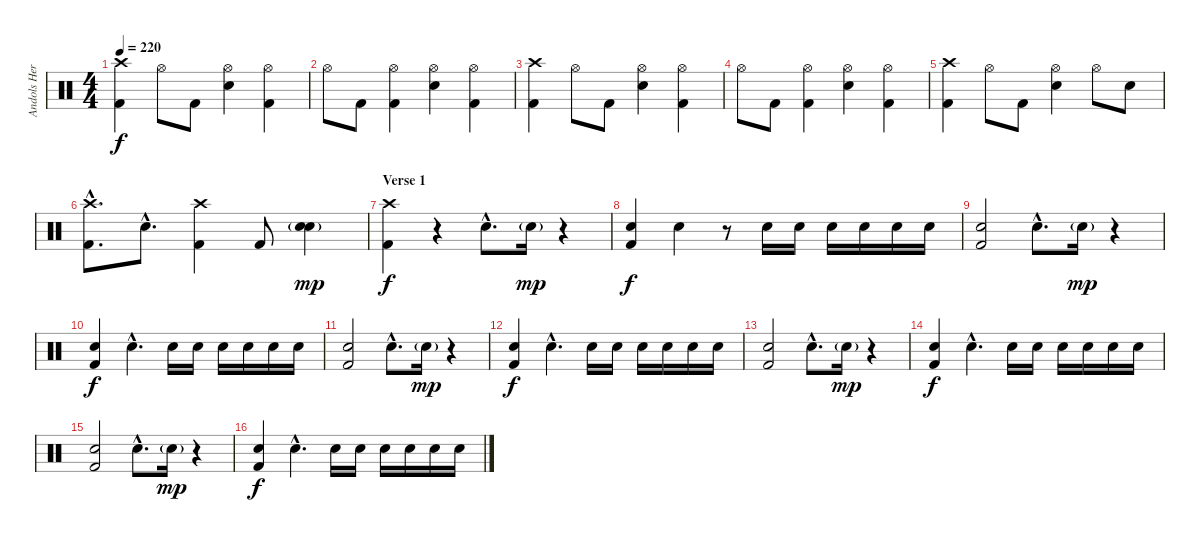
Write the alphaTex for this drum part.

\track ("Andols Herrick - Drums" "Andols Her") {instrument percussion}
\staff {score}
\articulation defaults
\ts (4 4)
\tempo 220
\clef neutral
\ks c
("Crash high (hit)" "Kick (hit) 2").4{dy f} "Hi-Hat (open)".8 "Kick (hit) 2".8 ("Hi-Hat (open)" "Snare (hit) 2").4 ("Hi-Hat (open)" "Kick (hit) 2").4 |
"Hi-Hat (open)".8 "Kick (hit) 2".8 ("Hi-Hat (open)" "Kick (hit) 2").4 ("Hi-Hat (open)" "Snare (hit) 2").4 ("Hi-Hat (open)" "Kick (hit) 2").4 |
("Crash high (hit)" "Kick (hit) 2").4 "Hi-Hat (open)".8 "Kick (hit) 2".8 ("Hi-Hat (open)" "Snare (hit) 2").4 ("Hi-Hat (open)" "Kick (hit) 2").4 |
"Hi-Hat (open)".8 "Kick (hit) 2".8 ("Hi-Hat (open)" "Kick (hit) 2").4 ("Hi-Hat (open)" "Snare (hit) 2").4 ("Hi-Hat (open)" "Kick (hit) 2").4 |
("Crash high (hit)" "Kick (hit) 2").4 "Hi-Hat (open)".8 "Kick (hit) 2".8 ("Hi-Hat (open)" "Snare (hit) 2").4 "Hi-Hat (open)".8 "Snare (hit) 2".8 |
("Crash high (hit)"{hac} "Kick (hit) 2"{hac}).8{d} "Snare (hit) 2"{hac}.8{d} ("Crash high (hit)" "Kick (hit) 2").4 "Kick (hit) 2".8 ("Snare (hit) 2"{g} "Snare (hit) 2").4{dy mp} |
\section ("" "Verse 1")
("Crash high (hit)" "Kick (hit) 2").4{dy f} r.4 "Snare (hit) 2"{hac}.8{d} "Snare (hit) 2"{g}.16{dy mp} r.4 |
("Snare (hit) 2" "Kick (hit) 2").4{dy f} "Snare (hit) 2".4 r.8 "Snare (hit) 2".16 "Snare (hit) 2".16 "Snare (hit) 2".16 "Snare (hit) 2".16 "Snare (hit) 2".16 "Snare (hit) 2".16 |
("Snare (hit) 2" "Kick (hit) 2").2 "Snare (hit) 2"{hac}.8{d} "Snare (hit) 2"{g}.16{dy mp} r.4 |
("Snare (hit) 2" "Kick (hit) 2").4{dy f} "Snare (hit) 2"{hac}.4{d} "Snare (hit) 2".16 "Snare (hit) 2".16 "Snare (hit) 2".16 "Snare (hit) 2".16 "Snare (hit) 2".16 "Snare (hit) 2".16 |
("Snare (hit) 2" "Kick (hit) 2").2 "Snare (hit) 2"{hac}.8{d} "Snare (hit) 2"{g}.16{dy mp} r.4 |
("Snare (hit) 2" "Kick (hit) 2").4{dy f} "Snare (hit) 2"{hac}.4{d} "Snare (hit) 2".16 "Snare (hit) 2".16 "Snare (hit) 2".16 "Snare (hit) 2".16 "Snare (hit) 2".16 "Snare (hit) 2".16 |
("Snare (hit) 2" "Kick (hit) 2").2 "Snare (hit) 2"{hac}.8{d} "Snare (hit) 2"{g}.16{dy mp} r.4 |
("Snare (hit) 2" "Kick (hit) 2").4{dy f} "Snare (hit) 2"{hac}.4{d} "Snare (hit) 2".16 "Snare (hit) 2".16 "Snare (hit) 2".16 "Snare (hit) 2".16 "Snare (hit) 2".16 "Snare (hit) 2".16 |
("Snare (hit) 2" "Kick (hit) 2").2 "Snare (hit) 2"{hac}.8{d} "Snare (hit) 2"{g}.16{dy mp} r.4 |
("Snare (hit) 2" "Kick (hit) 2").4{dy f} "Snare (hit) 2"{hac}.4{d} "Snare (hit) 2".16 "Snare (hit) 2".16 "Snare (hit) 2".16 "Snare (hit) 2".16 "Snare (hit) 2".16 "Snare (hit) 2".16
